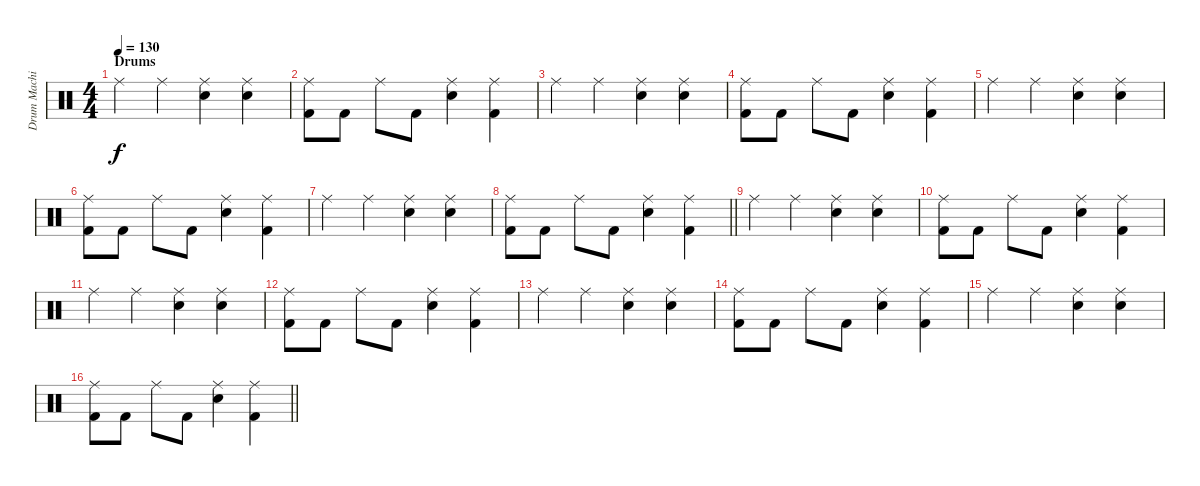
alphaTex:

\track ("Drum Machine" "Drum Machi") {instrument percussion}
\staff {score}
\articulation defaults
\ts (4 4)
\section ("" "Drums")
\tempo 130
\clef neutral
\ks c "Ride (middle)".4{dy f} "Ride (middle)".4
("Electric Snare (hit)" "Ride (middle)").4 ("Electric Snare (hit)" "Ride (middle)").4 |
("Kick (hit) 2" "Ride (middle)").8 "Kick (hit) 2".8 "Ride (middle)".8 "Kick (hit) 2".8 ("Electric Snare (hit)" "Ride (middle)").4 ("Kick (hit) 2" "Ride (middle)").4 |
"Ride (middle)".4 "Ride (middle)".4 ("Electric Snare (hit)" "Ride (middle)").4 ("Electric Snare (hit)" "Ride (middle)").4 |
("Kick (hit) 2" "Ride (middle)").8 "Kick (hit) 2".8 "Ride (middle)".8 "Kick (hit) 2".8 ("Electric Snare (hit)" "Ride (middle)").4 ("Kick (hit) 2" "Ride (middle)").4 |
"Ride (middle)".4 "Ride (middle)".4 ("Electric Snare (hit)" "Ride (middle)").4 ("Electric Snare (hit)" "Ride (middle)").4 |
("Kick (hit) 2" "Ride (middle)").8 "Kick (hit) 2".8 "Ride (middle)".8 "Kick (hit) 2".8 ("Electric Snare (hit)" "Ride (middle)").4 ("Kick (hit) 2" "Ride (middle)").4 |
"Ride (middle)".4 "Ride (middle)".4 ("Electric Snare (hit)" "Ride (middle)").4 ("Electric Snare (hit)" "Ride (middle)").4 |
\barLineRight lightlight
("Kick (hit) 2" "Ride (middle)").8 "Kick (hit) 2".8 "Ride (middle)".8 "Kick (hit) 2".8 ("Electric Snare (hit)" "Ride (middle)").4 ("Kick (hit) 2" "Ride (middle)").4 |
"Ride (middle)".4 "Ride (middle)".4 ("Electric Snare (hit)" "Ride (middle)").4 ("Electric Snare (hit)" "Ride (middle)").4 |
("Kick (hit) 2" "Ride (middle)").8 "Kick (hit) 2".8 "Ride (middle)".8 "Kick (hit) 2".8 ("Electric Snare (hit)" "Ride (middle)").4 ("Kick (hit) 2" "Ride (middle)").4 |
"Ride (middle)".4 "Ride (middle)".4 ("Electric Snare (hit)" "Ride (middle)").4 ("Electric Snare (hit)" "Ride (middle)").4 |
("Kick (hit) 2" "Ride (middle)").8 "Kick (hit) 2".8 "Ride (middle)".8 "Kick (hit) 2".8 ("Electric Snare (hit)" "Ride (middle)").4 ("Kick (hit) 2" "Ride (middle)").4 |
"Ride (middle)".4 "Ride (middle)".4 ("Electric Snare (hit)" "Ride (middle)").4 ("Electric Snare (hit)" "Ride (middle)").4 |
("Kick (hit) 2" "Ride (middle)").8 "Kick (hit) 2".8 "Ride (middle)".8 "Kick (hit) 2".8 ("Electric Snare (hit)" "Ride (middle)").4 ("Kick (hit) 2" "Ride (middle)").4 |
"Ride (middle)".4 "Ride (middle)".4 ("Electric Snare (hit)" "Ride (middle)").4 ("Electric Snare (hit)" "Ride (middle)").4 |
\barLineRight lightlight
("Kick (hit) 2" "Ride (middle)").8 "Kick (hit) 2".8 "Ride (middle)".8 "Kick (hit) 2".8 ("Electric Snare (hit)" "Ride (middle)").4 ("Kick (hit) 2" "Ride (middle)").4
